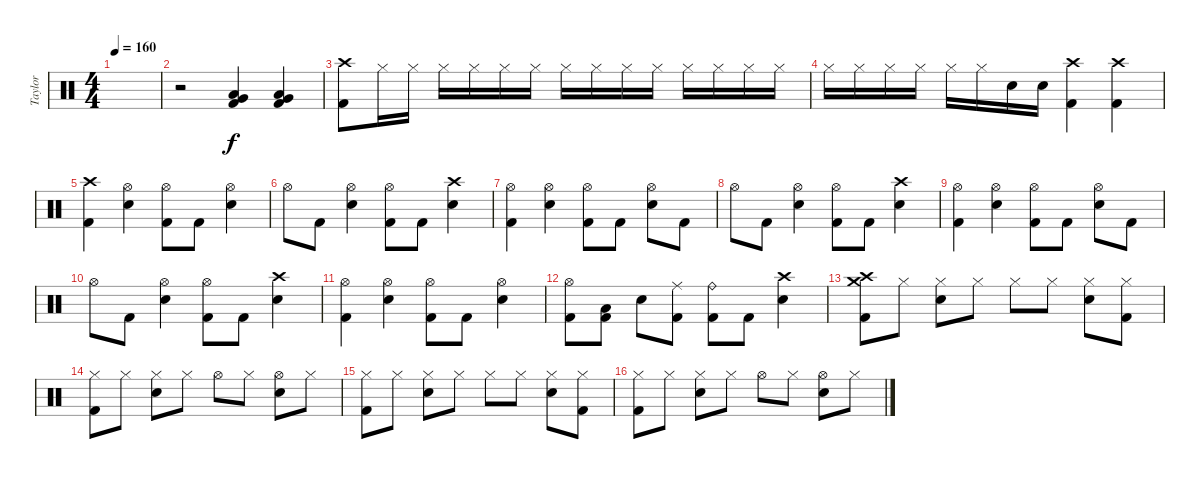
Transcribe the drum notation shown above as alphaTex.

\track ("Taylor" "Taylor") {instrument percussion}
\staff {score}
\articulation defaults
\ts (4 4)
\tempo 160
\clef neutral
\ks c
|
r.2 ("Low Tom (hit)" "Very Low Tom (hit)" "Kick (hit) 2").4 ("Low Tom (hit)" "Very Low Tom (hit)" "Kick (hit) 2").4 |
("Crash high (hit)" "Kick (hit) 2").8 "Hi-Hat (closed)".16 "Hi-Hat (closed)".16 "Hi-Hat (closed)".16 "Hi-Hat (closed)".16 "Hi-Hat (closed)".16 "Hi-Hat (closed)".16 "Hi-Hat (closed)".16 "Hi-Hat (closed)".16 "Hi-Hat (closed)".16 "Hi-Hat (closed)".16 "Hi-Hat (closed)".16 "Hi-Hat (closed)".16 "Hi-Hat (closed)".16 "Hi-Hat (closed)".16 |
"Hi-Hat (closed)".16 "Hi-Hat (closed)".16 "Hi-Hat (closed)".16 "Hi-Hat (closed)".16 "Hi-Hat (closed)".16 "Hi-Hat (closed)".16 "Electric Snare (hit)".16 "Electric Snare (hit)".16 ("Crash high (hit)" "Kick (hit) 2").4 ("Crash high (hit)" "Kick (hit) 2").4 |
("Crash high (hit)" "Kick (hit) 2").4 ("Hi-Hat (open)" "Electric Snare (hit)").4 ("Hi-Hat (open)" "Kick (hit) 2").8 "Kick (hit) 2".8 ("Hi-Hat (open)" "Electric Snare (hit)").4 |
"Hi-Hat (open)".8 "Kick (hit) 2".8 ("Hi-Hat (open)" "Electric Snare (hit)").4 ("Hi-Hat (open)" "Kick (hit) 2").8 "Kick (hit) 2".8 ("Crash high (hit)" "Electric Snare (hit)").4 |
("Hi-Hat (open)" "Kick (hit) 2").4 ("Hi-Hat (open)" "Electric Snare (hit)").4 ("Hi-Hat (open)" "Kick (hit) 2").8 "Kick (hit) 2".8 ("Hi-Hat (open)" "Electric Snare (hit)").8 "Kick (hit) 2".8 |
"Hi-Hat (open)".8 "Kick (hit) 2".8 ("Hi-Hat (open)" "Electric Snare (hit)").4 ("Hi-Hat (open)" "Kick (hit) 2").8 "Kick (hit) 2".8 ("Crash high (hit)" "Electric Snare (hit)").4 |
("Hi-Hat (open)" "Kick (hit) 2").4 ("Hi-Hat (open)" "Electric Snare (hit)").4 ("Hi-Hat (open)" "Kick (hit) 2").8 "Kick (hit) 2".8 ("Hi-Hat (open)" "Electric Snare (hit)").8 "Kick (hit) 2".8 |
"Hi-Hat (open)".8 "Kick (hit) 2".8 ("Hi-Hat (open)" "Electric Snare (hit)").4 ("Hi-Hat (open)" "Kick (hit) 2").8 "Kick (hit) 2".8 ("Crash high (hit)" "Electric Snare (hit)").4 |
("Hi-Hat (open)" "Kick (hit) 2").4 ("Hi-Hat (open)" "Electric Snare (hit)").4 ("Hi-Hat (open)" "Kick (hit) 2").8 "Kick (hit) 2".8 ("Hi-Hat (open)" "Electric Snare (hit)").4 |
("Hi-Hat (open)" "Kick (hit) 2").8 ("Low Tom (hit)" "Kick (hit) 2").8 "Electric Snare (hit)".8 ("Ride (middle)" "Kick (hit) 2").8 ("Ride (bell)" "Kick (hit) 2").8 "Kick (hit) 2".8 ("Crash high (hit)" "Electric Snare (hit)").4 |
("Crash high (hit)" "Crash medium (hit)" "Kick (hit) 2").8 "Hi-Hat (closed)".8 ("Hi-Hat (closed)" "Electric Snare (hit)").8 "Hi-Hat (closed)".8 "Hi-Hat (closed)".8 "Hi-Hat (closed)".8 ("Hi-Hat (closed)" "Electric Snare (hit)").8 ("Hi-Hat (closed)" "Kick (hit) 2").8 |
("Hi-Hat (closed)" "Kick (hit) 2").8 "Hi-Hat (closed)".8 ("Hi-Hat (closed)" "Electric Snare (hit)").8 "Hi-Hat (closed)".8 "Hi-Hat (open)".8 "Hi-Hat (closed)".8 ("Hi-Hat (open)" "Electric Snare (hit)").8 "Hi-Hat (closed)".8 |
("Hi-Hat (closed)" "Kick (hit) 2").8 "Hi-Hat (closed)".8 ("Hi-Hat (closed)" "Electric Snare (hit)").8 "Hi-Hat (closed)".8 "Hi-Hat (closed)".8 "Hi-Hat (closed)".8 ("Hi-Hat (closed)" "Electric Snare (hit)").8 ("Hi-Hat (closed)" "Kick (hit) 2").8 |
("Hi-Hat (closed)" "Kick (hit) 2").8 "Hi-Hat (closed)".8 ("Hi-Hat (closed)" "Electric Snare (hit)").8 "Hi-Hat (closed)".8 "Hi-Hat (open)".8 "Hi-Hat (closed)".8 ("Hi-Hat (open)" "Electric Snare (hit)").8 "Hi-Hat (closed)".8
